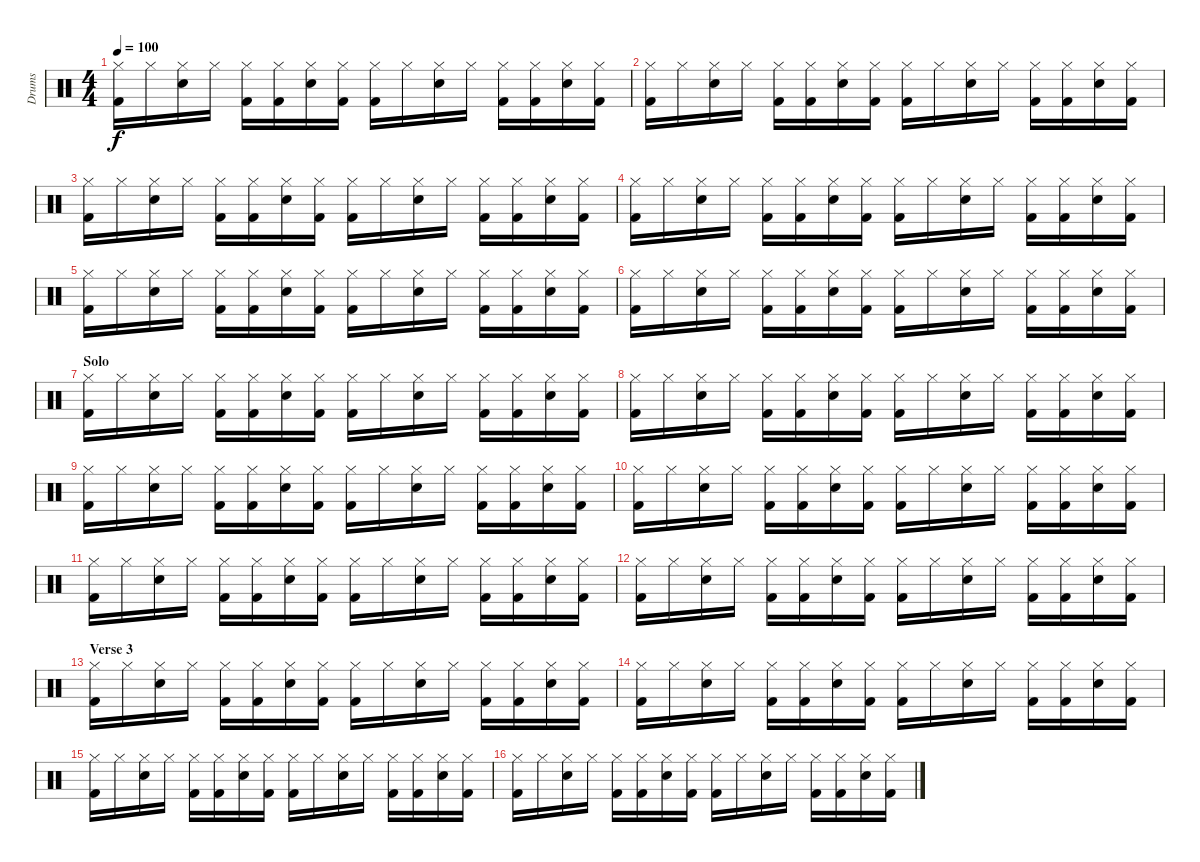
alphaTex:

\track ("Drums" "Drums") {instrument percussion}
\staff {score}
\articulation defaults
\ts (4 4)
\tempo 100
\clef neutral
\ks c
("Hi-Hat (closed)" "Kick (hit) 2").16{dy f} "Hi-Hat (closed)".16 ("Hi-Hat (closed)" "Snare (hit) 2").16 "Hi-Hat (closed)".16 ("Hi-Hat (closed)" "Kick (hit) 2").16 ("Hi-Hat (closed)" "Kick (hit) 2").16 ("Hi-Hat (closed)" "Snare (hit) 2").16 ("Hi-Hat (closed)" "Kick (hit) 2").16 ("Hi-Hat (closed)" "Kick (hit) 2").16 "Hi-Hat (closed)".16 ("Hi-Hat (closed)" "Snare (hit) 2").16 "Hi-Hat (closed)".16 ("Hi-Hat (closed)" "Kick (hit) 2").16 ("Hi-Hat (closed)" "Kick (hit) 2").16 ("Hi-Hat (closed)" "Snare (hit) 2").16 ("Hi-Hat (closed)" "Kick (hit) 2").16 |
("Hi-Hat (closed)" "Kick (hit) 2").16 "Hi-Hat (closed)".16 ("Hi-Hat (closed)" "Snare (hit) 2").16 "Hi-Hat (closed)".16 ("Hi-Hat (closed)" "Kick (hit) 2").16 ("Hi-Hat (closed)" "Kick (hit) 2").16 ("Hi-Hat (closed)" "Snare (hit) 2").16 ("Hi-Hat (closed)" "Kick (hit) 2").16 ("Hi-Hat (closed)" "Kick (hit) 2").16 "Hi-Hat (closed)".16 ("Hi-Hat (closed)" "Snare (hit) 2").16 "Hi-Hat (closed)".16 ("Hi-Hat (closed)" "Kick (hit) 2").16 ("Hi-Hat (closed)" "Kick (hit) 2").16 ("Hi-Hat (closed)" "Snare (hit) 2").16 ("Hi-Hat (closed)" "Kick (hit) 2").16 |
("Hi-Hat (closed)" "Kick (hit) 2").16 "Hi-Hat (closed)".16 ("Hi-Hat (closed)" "Snare (hit) 2").16 "Hi-Hat (closed)".16 ("Hi-Hat (closed)" "Kick (hit) 2").16 ("Hi-Hat (closed)" "Kick (hit) 2").16 ("Hi-Hat (closed)" "Snare (hit) 2").16 ("Hi-Hat (closed)" "Kick (hit) 2").16 ("Hi-Hat (closed)" "Kick (hit) 2").16 "Hi-Hat (closed)".16 ("Hi-Hat (closed)" "Snare (hit) 2").16 "Hi-Hat (closed)".16 ("Hi-Hat (closed)" "Kick (hit) 2").16 ("Hi-Hat (closed)" "Kick (hit) 2").16 ("Hi-Hat (closed)" "Snare (hit) 2").16 ("Hi-Hat (closed)" "Kick (hit) 2").16 |
("Hi-Hat (closed)" "Kick (hit) 2").16 "Hi-Hat (closed)".16 ("Hi-Hat (closed)" "Snare (hit) 2").16 "Hi-Hat (closed)".16 ("Hi-Hat (closed)" "Kick (hit) 2").16 ("Hi-Hat (closed)" "Kick (hit) 2").16 ("Hi-Hat (closed)" "Snare (hit) 2").16 ("Hi-Hat (closed)" "Kick (hit) 2").16 ("Hi-Hat (closed)" "Kick (hit) 2").16 "Hi-Hat (closed)".16 ("Hi-Hat (closed)" "Snare (hit) 2").16 "Hi-Hat (closed)".16 ("Hi-Hat (closed)" "Kick (hit) 2").16 ("Hi-Hat (closed)" "Kick (hit) 2").16 ("Hi-Hat (closed)" "Snare (hit) 2").16 ("Hi-Hat (closed)" "Kick (hit) 2").16 |
("Hi-Hat (closed)" "Kick (hit) 2").16 "Hi-Hat (closed)".16 ("Hi-Hat (closed)" "Snare (hit) 2").16 "Hi-Hat (closed)".16 ("Hi-Hat (closed)" "Kick (hit) 2").16 ("Hi-Hat (closed)" "Kick (hit) 2").16 ("Hi-Hat (closed)" "Snare (hit) 2").16 ("Hi-Hat (closed)" "Kick (hit) 2").16 ("Hi-Hat (closed)" "Kick (hit) 2").16 "Hi-Hat (closed)".16 ("Hi-Hat (closed)" "Snare (hit) 2").16 "Hi-Hat (closed)".16 ("Hi-Hat (closed)" "Kick (hit) 2").16 ("Hi-Hat (closed)" "Kick (hit) 2").16 ("Hi-Hat (closed)" "Snare (hit) 2").16 ("Hi-Hat (closed)" "Kick (hit) 2").16 |
("Hi-Hat (closed)" "Kick (hit) 2").16 "Hi-Hat (closed)".16 ("Hi-Hat (closed)" "Snare (hit) 2").16 "Hi-Hat (closed)".16 ("Hi-Hat (closed)" "Kick (hit) 2").16 ("Hi-Hat (closed)" "Kick (hit) 2").16 ("Hi-Hat (closed)" "Snare (hit) 2").16 ("Hi-Hat (closed)" "Kick (hit) 2").16 ("Hi-Hat (closed)" "Kick (hit) 2").16 "Hi-Hat (closed)".16 ("Hi-Hat (closed)" "Snare (hit) 2").16 "Hi-Hat (closed)".16 ("Hi-Hat (closed)" "Kick (hit) 2").16 ("Hi-Hat (closed)" "Kick (hit) 2").16 ("Hi-Hat (closed)" "Snare (hit) 2").16 ("Hi-Hat (closed)" "Kick (hit) 2").16 |
\section ("" "Solo")
("Hi-Hat (closed)" "Kick (hit) 2").16 "Hi-Hat (closed)".16 ("Hi-Hat (closed)" "Snare (hit) 2").16 "Hi-Hat (closed)".16 ("Hi-Hat (closed)" "Kick (hit) 2").16 ("Hi-Hat (closed)" "Kick (hit) 2").16 ("Hi-Hat (closed)" "Snare (hit) 2").16 ("Hi-Hat (closed)" "Kick (hit) 2").16 ("Hi-Hat (closed)" "Kick (hit) 2").16 "Hi-Hat (closed)".16 ("Hi-Hat (closed)" "Snare (hit) 2").16 "Hi-Hat (closed)".16 ("Hi-Hat (closed)" "Kick (hit) 2").16 ("Hi-Hat (closed)" "Kick (hit) 2").16 ("Hi-Hat (closed)" "Snare (hit) 2").16 ("Hi-Hat (closed)" "Kick (hit) 2").16 |
("Hi-Hat (closed)" "Kick (hit) 2").16 "Hi-Hat (closed)".16 ("Hi-Hat (closed)" "Snare (hit) 2").16 "Hi-Hat (closed)".16 ("Hi-Hat (closed)" "Kick (hit) 2").16 ("Hi-Hat (closed)" "Kick (hit) 2").16 ("Hi-Hat (closed)" "Snare (hit) 2").16 ("Hi-Hat (closed)" "Kick (hit) 2").16 ("Hi-Hat (closed)" "Kick (hit) 2").16 "Hi-Hat (closed)".16 ("Hi-Hat (closed)" "Snare (hit) 2").16 "Hi-Hat (closed)".16 ("Hi-Hat (closed)" "Kick (hit) 2").16 ("Hi-Hat (closed)" "Kick (hit) 2").16 ("Hi-Hat (closed)" "Snare (hit) 2").16 ("Hi-Hat (closed)" "Kick (hit) 2").16 |
("Hi-Hat (closed)" "Kick (hit) 2").16 "Hi-Hat (closed)".16 ("Hi-Hat (closed)" "Snare (hit) 2").16 "Hi-Hat (closed)".16 ("Hi-Hat (closed)" "Kick (hit) 2").16 ("Hi-Hat (closed)" "Kick (hit) 2").16 ("Hi-Hat (closed)" "Snare (hit) 2").16 ("Hi-Hat (closed)" "Kick (hit) 2").16 ("Hi-Hat (closed)" "Kick (hit) 2").16 "Hi-Hat (closed)".16 ("Hi-Hat (closed)" "Snare (hit) 2").16 "Hi-Hat (closed)".16 ("Hi-Hat (closed)" "Kick (hit) 2").16 ("Hi-Hat (closed)" "Kick (hit) 2").16 ("Hi-Hat (closed)" "Snare (hit) 2").16 ("Hi-Hat (closed)" "Kick (hit) 2").16 |
("Hi-Hat (closed)" "Kick (hit) 2").16 "Hi-Hat (closed)".16 ("Hi-Hat (closed)" "Snare (hit) 2").16 "Hi-Hat (closed)".16 ("Hi-Hat (closed)" "Kick (hit) 2").16 ("Hi-Hat (closed)" "Kick (hit) 2").16 ("Hi-Hat (closed)" "Snare (hit) 2").16 ("Hi-Hat (closed)" "Kick (hit) 2").16 ("Hi-Hat (closed)" "Kick (hit) 2").16 "Hi-Hat (closed)".16 ("Hi-Hat (closed)" "Snare (hit) 2").16 "Hi-Hat (closed)".16 ("Hi-Hat (closed)" "Kick (hit) 2").16 ("Hi-Hat (closed)" "Kick (hit) 2").16 ("Hi-Hat (closed)" "Snare (hit) 2").16 ("Hi-Hat (closed)" "Kick (hit) 2").16 |
("Hi-Hat (closed)" "Kick (hit) 2").16 "Hi-Hat (closed)".16 ("Hi-Hat (closed)" "Snare (hit) 2").16 "Hi-Hat (closed)".16 ("Hi-Hat (closed)" "Kick (hit) 2").16 ("Hi-Hat (closed)" "Kick (hit) 2").16 ("Hi-Hat (closed)" "Snare (hit) 2").16 ("Hi-Hat (closed)" "Kick (hit) 2").16 ("Hi-Hat (closed)" "Kick (hit) 2").16 "Hi-Hat (closed)".16 ("Hi-Hat (closed)" "Snare (hit) 2").16 "Hi-Hat (closed)".16 ("Hi-Hat (closed)" "Kick (hit) 2").16 ("Hi-Hat (closed)" "Kick (hit) 2").16 ("Hi-Hat (closed)" "Snare (hit) 2").16 ("Hi-Hat (closed)" "Kick (hit) 2").16 |
("Hi-Hat (closed)" "Kick (hit) 2").16 "Hi-Hat (closed)".16 ("Hi-Hat (closed)" "Snare (hit) 2").16 "Hi-Hat (closed)".16 ("Hi-Hat (closed)" "Kick (hit) 2").16 ("Hi-Hat (closed)" "Kick (hit) 2").16 ("Hi-Hat (closed)" "Snare (hit) 2").16 ("Hi-Hat (closed)" "Kick (hit) 2").16 ("Hi-Hat (closed)" "Kick (hit) 2").16 "Hi-Hat (closed)".16 ("Hi-Hat (closed)" "Snare (hit) 2").16 "Hi-Hat (closed)".16 ("Hi-Hat (closed)" "Kick (hit) 2").16 ("Hi-Hat (closed)" "Kick (hit) 2").16 ("Hi-Hat (closed)" "Snare (hit) 2").16 ("Hi-Hat (closed)" "Kick (hit) 2").16 |
\section ("" "Verse 3")
("Hi-Hat (closed)" "Kick (hit) 2").16 "Hi-Hat (closed)".16 ("Hi-Hat (closed)" "Snare (hit) 2").16 "Hi-Hat (closed)".16 ("Hi-Hat (closed)" "Kick (hit) 2").16 ("Hi-Hat (closed)" "Kick (hit) 2").16 ("Hi-Hat (closed)" "Snare (hit) 2").16 ("Hi-Hat (closed)" "Kick (hit) 2").16 ("Hi-Hat (closed)" "Kick (hit) 2").16 "Hi-Hat (closed)".16 ("Hi-Hat (closed)" "Snare (hit) 2").16 "Hi-Hat (closed)".16 ("Hi-Hat (closed)" "Kick (hit) 2").16 ("Hi-Hat (closed)" "Kick (hit) 2").16 ("Hi-Hat (closed)" "Snare (hit) 2").16 ("Hi-Hat (closed)" "Kick (hit) 2").16 |
("Hi-Hat (closed)" "Kick (hit) 2").16 "Hi-Hat (closed)".16 ("Hi-Hat (closed)" "Snare (hit) 2").16 "Hi-Hat (closed)".16 ("Hi-Hat (closed)" "Kick (hit) 2").16 ("Hi-Hat (closed)" "Kick (hit) 2").16 ("Hi-Hat (closed)" "Snare (hit) 2").16 ("Hi-Hat (closed)" "Kick (hit) 2").16 ("Hi-Hat (closed)" "Kick (hit) 2").16 "Hi-Hat (closed)".16 ("Hi-Hat (closed)" "Snare (hit) 2").16 "Hi-Hat (closed)".16 ("Hi-Hat (closed)" "Kick (hit) 2").16 ("Hi-Hat (closed)" "Kick (hit) 2").16 ("Hi-Hat (closed)" "Snare (hit) 2").16 ("Hi-Hat (closed)" "Kick (hit) 2").16 |
("Hi-Hat (closed)" "Kick (hit) 2").16 "Hi-Hat (closed)".16 ("Hi-Hat (closed)" "Snare (hit) 2").16 "Hi-Hat (closed)".16 ("Hi-Hat (closed)" "Kick (hit) 2").16 ("Hi-Hat (closed)" "Kick (hit) 2").16 ("Hi-Hat (closed)" "Snare (hit) 2").16 ("Hi-Hat (closed)" "Kick (hit) 2").16 ("Hi-Hat (closed)" "Kick (hit) 2").16 "Hi-Hat (closed)".16 ("Hi-Hat (closed)" "Snare (hit) 2").16 "Hi-Hat (closed)".16 ("Hi-Hat (closed)" "Kick (hit) 2").16 ("Hi-Hat (closed)" "Kick (hit) 2").16 ("Hi-Hat (closed)" "Snare (hit) 2").16 ("Hi-Hat (closed)" "Kick (hit) 2").16 |
("Hi-Hat (closed)" "Kick (hit) 2").16 "Hi-Hat (closed)".16 ("Hi-Hat (closed)" "Snare (hit) 2").16 "Hi-Hat (closed)".16 ("Hi-Hat (closed)" "Kick (hit) 2").16 ("Hi-Hat (closed)" "Kick (hit) 2").16 ("Hi-Hat (closed)" "Snare (hit) 2").16 ("Hi-Hat (closed)" "Kick (hit) 2").16 ("Hi-Hat (closed)" "Kick (hit) 2").16 "Hi-Hat (closed)".16 ("Hi-Hat (closed)" "Snare (hit) 2").16 "Hi-Hat (closed)".16 ("Hi-Hat (closed)" "Kick (hit) 2").16 ("Hi-Hat (closed)" "Kick (hit) 2").16 ("Hi-Hat (closed)" "Snare (hit) 2").16 ("Hi-Hat (closed)" "Kick (hit) 2").16
